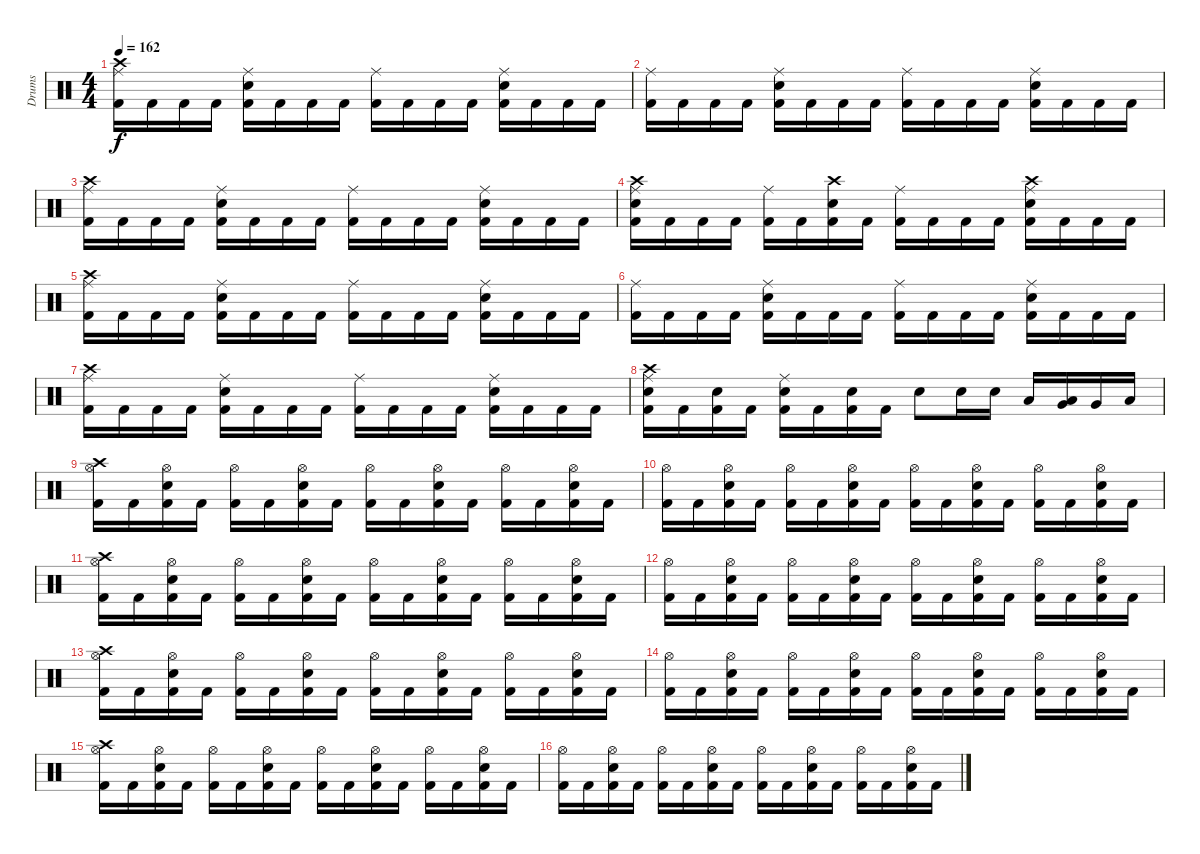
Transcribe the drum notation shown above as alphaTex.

\track ("Drums" "Drums") {instrument percussion}
\staff {score}
\articulation defaults
\ts (4 4)
\tempo 162
\clef neutral
\ks c
("Ride (middle)" "Kick (hit) 2" "Crash high (hit)").16{dy f} "Kick (hit) 2".16 "Kick (hit) 2".16 "Kick (hit) 2".16 ("Ride (middle)" "Electric Snare (hit)" "Kick (hit) 2").16 "Kick (hit) 2".16 "Kick (hit) 2".16 "Kick (hit) 2".16 ("Ride (middle)" "Kick (hit) 2").16 "Kick (hit) 2".16 "Kick (hit) 2".16 "Kick (hit) 2".16 ("Ride (middle)" "Electric Snare (hit)" "Kick (hit) 2").16 "Kick (hit) 2".16 "Kick (hit) 2".16 "Kick (hit) 2".16 |
("Ride (middle)" "Kick (hit) 2").16 "Kick (hit) 2".16 "Kick (hit) 2".16 "Kick (hit) 2".16 ("Ride (middle)" "Electric Snare (hit)" "Kick (hit) 2").16 "Kick (hit) 2".16 "Kick (hit) 2".16 "Kick (hit) 2".16 ("Ride (middle)" "Kick (hit) 2").16 "Kick (hit) 2".16 "Kick (hit) 2".16 "Kick (hit) 2".16 ("Ride (middle)" "Electric Snare (hit)" "Kick (hit) 2").16 "Kick (hit) 2".16 "Kick (hit) 2".16 "Kick (hit) 2".16 |
("Crash high (hit)" "Ride (middle)" "Kick (hit) 2").16 "Kick (hit) 2".16 "Kick (hit) 2".16 "Kick (hit) 2".16 ("Ride (middle)" "Electric Snare (hit)" "Kick (hit) 2").16 "Kick (hit) 2".16 "Kick (hit) 2".16 "Kick (hit) 2".16 ("Ride (middle)" "Kick (hit) 2").16 "Kick (hit) 2".16 "Kick (hit) 2".16 "Kick (hit) 2".16 ("Ride (middle)" "Electric Snare (hit)" "Kick (hit) 2").16 "Kick (hit) 2".16 "Kick (hit) 2".16 "Kick (hit) 2".16 |
("Crash high (hit)" "Electric Snare (hit)" "Ride (middle)" "Kick (hit) 2").16 "Kick (hit) 2".16 "Kick (hit) 2".16 "Kick (hit) 2".16 ("Ride (middle)" "Kick (hit) 2").16 "Kick (hit) 2".16 ("Crash high (hit)" "Electric Snare (hit)" "Kick (hit) 2").16 "Kick (hit) 2".16 ("Ride (middle)" "Kick (hit) 2").16 "Kick (hit) 2".16 "Kick (hit) 2".16 "Kick (hit) 2".16 ("Crash high (hit)" "Electric Snare (hit)" "Ride (middle)" "Kick (hit) 2").16 "Kick (hit) 2".16 "Kick (hit) 2".16 "Kick (hit) 2".16 |
("Crash high (hit)" "Ride (middle)" "Kick (hit) 2").16 "Kick (hit) 2".16 "Kick (hit) 2".16 "Kick (hit) 2".16 ("Ride (middle)" "Electric Snare (hit)" "Kick (hit) 2").16 "Kick (hit) 2".16 "Kick (hit) 2".16 "Kick (hit) 2".16 ("Ride (middle)" "Kick (hit) 2").16 "Kick (hit) 2".16 "Kick (hit) 2".16 "Kick (hit) 2".16 ("Ride (middle)" "Electric Snare (hit)" "Kick (hit) 2").16 "Kick (hit) 2".16 "Kick (hit) 2".16 "Kick (hit) 2".16 |
("Ride (middle)" "Kick (hit) 2").16 "Kick (hit) 2".16 "Kick (hit) 2".16 "Kick (hit) 2".16 ("Ride (middle)" "Electric Snare (hit)" "Kick (hit) 2").16 "Kick (hit) 2".16 "Kick (hit) 2".16 "Kick (hit) 2".16 ("Ride (middle)" "Kick (hit) 2").16 "Kick (hit) 2".16 "Kick (hit) 2".16 "Kick (hit) 2".16 ("Ride (middle)" "Electric Snare (hit)" "Kick (hit) 2").16 "Kick (hit) 2".16 "Kick (hit) 2".16 "Kick (hit) 2".16 |
("Crash high (hit)" "Ride (middle)" "Kick (hit) 2").16 "Kick (hit) 2".16 "Kick (hit) 2".16 "Kick (hit) 2".16 ("Ride (middle)" "Electric Snare (hit)" "Kick (hit) 2").16 "Kick (hit) 2".16 "Kick (hit) 2".16 "Kick (hit) 2".16 ("Ride (middle)" "Kick (hit) 2").16 "Kick (hit) 2".16 "Kick (hit) 2".16 "Kick (hit) 2".16 ("Ride (middle)" "Electric Snare (hit)" "Kick (hit) 2").16 "Kick (hit) 2".16 "Kick (hit) 2".16 "Kick (hit) 2".16 |
("Crash high (hit)" "Electric Snare (hit)" "Ride (middle)" "Kick (hit) 2").16 "Kick (hit) 2".16 ("Electric Snare (hit)" "Kick (hit) 2").16 "Kick (hit) 2".16 ("Electric Snare (hit)" "Ride (middle)" "Kick (hit) 2").16 "Kick (hit) 2".16 ("Electric Snare (hit)" "Kick (hit) 2").16 "Kick (hit) 2".16 "Electric Snare (hit)".8 "Electric Snare (hit)".16 "Electric Snare (hit)".16 "Low Tom (hit)".16 ("Very Low Tom (hit)" "Low Tom (hit)").16 "Very Low Tom (hit)".16 "Low Floor Tom (hit)".16 |
("Crash high (hit)" "Hi-Hat (open)" "Kick (hit) 2").16 "Kick (hit) 2".16 ("Electric Snare (hit)" "Hi-Hat (open)" "Kick (hit) 2").16 "Kick (hit) 2".16 ("Hi-Hat (open)" "Kick (hit) 2").16 "Kick (hit) 2".16 ("Electric Snare (hit)" "Hi-Hat (open)" "Kick (hit) 2").16 "Kick (hit) 2".16 ("Hi-Hat (open)" "Kick (hit) 2").16 "Kick (hit) 2".16 ("Electric Snare (hit)" "Hi-Hat (open)" "Kick (hit) 2").16 "Kick (hit) 2".16 ("Hi-Hat (open)" "Kick (hit) 2").16 "Kick (hit) 2".16 ("Electric Snare (hit)" "Hi-Hat (open)" "Kick (hit) 2").16 "Kick (hit) 2".16 |
("Hi-Hat (open)" "Kick (hit) 2").16 "Kick (hit) 2".16 ("Electric Snare (hit)" "Hi-Hat (open)" "Kick (hit) 2").16 "Kick (hit) 2".16 ("Hi-Hat (open)" "Kick (hit) 2").16 "Kick (hit) 2".16 ("Electric Snare (hit)" "Hi-Hat (open)" "Kick (hit) 2").16 "Kick (hit) 2".16 ("Hi-Hat (open)" "Kick (hit) 2").16 "Kick (hit) 2".16 ("Electric Snare (hit)" "Hi-Hat (open)" "Kick (hit) 2").16 "Kick (hit) 2".16 ("Hi-Hat (open)" "Kick (hit) 2").16 "Kick (hit) 2".16 ("Electric Snare (hit)" "Hi-Hat (open)" "Kick (hit) 2").16 "Kick (hit) 2".16 |
("Crash high (hit)" "Hi-Hat (open)" "Kick (hit) 2").16 "Kick (hit) 2".16 ("Electric Snare (hit)" "Hi-Hat (open)" "Kick (hit) 2").16 "Kick (hit) 2".16 ("Hi-Hat (open)" "Kick (hit) 2").16 "Kick (hit) 2".16 ("Electric Snare (hit)" "Hi-Hat (open)" "Kick (hit) 2").16 "Kick (hit) 2".16 ("Hi-Hat (open)" "Kick (hit) 2").16 "Kick (hit) 2".16 ("Electric Snare (hit)" "Hi-Hat (open)" "Kick (hit) 2").16 "Kick (hit) 2".16 ("Hi-Hat (open)" "Kick (hit) 2").16 "Kick (hit) 2".16 ("Electric Snare (hit)" "Hi-Hat (open)" "Kick (hit) 2").16 "Kick (hit) 2".16 |
("Hi-Hat (open)" "Kick (hit) 2").16 "Kick (hit) 2".16 ("Electric Snare (hit)" "Hi-Hat (open)" "Kick (hit) 2").16 "Kick (hit) 2".16 ("Hi-Hat (open)" "Kick (hit) 2").16 "Kick (hit) 2".16 ("Electric Snare (hit)" "Hi-Hat (open)" "Kick (hit) 2").16 "Kick (hit) 2".16 ("Hi-Hat (open)" "Kick (hit) 2").16 "Kick (hit) 2".16 ("Electric Snare (hit)" "Hi-Hat (open)" "Kick (hit) 2").16 "Kick (hit) 2".16 ("Hi-Hat (open)" "Kick (hit) 2").16 "Kick (hit) 2".16 ("Electric Snare (hit)" "Hi-Hat (open)" "Kick (hit) 2").16 "Kick (hit) 2".16 |
("Crash high (hit)" "Hi-Hat (open)" "Kick (hit) 2").16 "Kick (hit) 2".16 ("Electric Snare (hit)" "Hi-Hat (open)" "Kick (hit) 2").16 "Kick (hit) 2".16 ("Hi-Hat (open)" "Kick (hit) 2").16 "Kick (hit) 2".16 ("Electric Snare (hit)" "Hi-Hat (open)" "Kick (hit) 2").16 "Kick (hit) 2".16 ("Hi-Hat (open)" "Kick (hit) 2").16 "Kick (hit) 2".16 ("Electric Snare (hit)" "Hi-Hat (open)" "Kick (hit) 2").16 "Kick (hit) 2".16 ("Hi-Hat (open)" "Kick (hit) 2").16 "Kick (hit) 2".16 ("Electric Snare (hit)" "Hi-Hat (open)" "Kick (hit) 2").16 "Kick (hit) 2".16 |
("Hi-Hat (open)" "Kick (hit) 2").16 "Kick (hit) 2".16 ("Electric Snare (hit)" "Hi-Hat (open)" "Kick (hit) 2").16 "Kick (hit) 2".16 ("Hi-Hat (open)" "Kick (hit) 2").16 "Kick (hit) 2".16 ("Electric Snare (hit)" "Hi-Hat (open)" "Kick (hit) 2").16 "Kick (hit) 2".16 ("Hi-Hat (open)" "Kick (hit) 2").16 "Kick (hit) 2".16 ("Electric Snare (hit)" "Hi-Hat (open)" "Kick (hit) 2").16 "Kick (hit) 2".16 ("Hi-Hat (open)" "Kick (hit) 2").16 "Kick (hit) 2".16 ("Electric Snare (hit)" "Hi-Hat (open)" "Kick (hit) 2").16 "Kick (hit) 2".16 |
("Crash high (hit)" "Hi-Hat (open)" "Kick (hit) 2").16 "Kick (hit) 2".16 ("Electric Snare (hit)" "Hi-Hat (open)" "Kick (hit) 2").16 "Kick (hit) 2".16 ("Hi-Hat (open)" "Kick (hit) 2").16 "Kick (hit) 2".16 ("Electric Snare (hit)" "Hi-Hat (open)" "Kick (hit) 2").16 "Kick (hit) 2".16 ("Hi-Hat (open)" "Kick (hit) 2").16 "Kick (hit) 2".16 ("Electric Snare (hit)" "Hi-Hat (open)" "Kick (hit) 2").16 "Kick (hit) 2".16 ("Hi-Hat (open)" "Kick (hit) 2").16 "Kick (hit) 2".16 ("Electric Snare (hit)" "Hi-Hat (open)" "Kick (hit) 2").16 "Kick (hit) 2".16 |
("Hi-Hat (open)" "Kick (hit) 2").16 "Kick (hit) 2".16 ("Electric Snare (hit)" "Hi-Hat (open)" "Kick (hit) 2").16 "Kick (hit) 2".16 ("Hi-Hat (open)" "Kick (hit) 2").16 "Kick (hit) 2".16 ("Electric Snare (hit)" "Hi-Hat (open)" "Kick (hit) 2").16 "Kick (hit) 2".16 ("Hi-Hat (open)" "Kick (hit) 2").16 "Kick (hit) 2".16 ("Electric Snare (hit)" "Hi-Hat (open)" "Kick (hit) 2").16 "Kick (hit) 2".16 ("Hi-Hat (open)" "Kick (hit) 2").16 "Kick (hit) 2".16 ("Electric Snare (hit)" "Hi-Hat (open)" "Kick (hit) 2").16 "Kick (hit) 2".16
